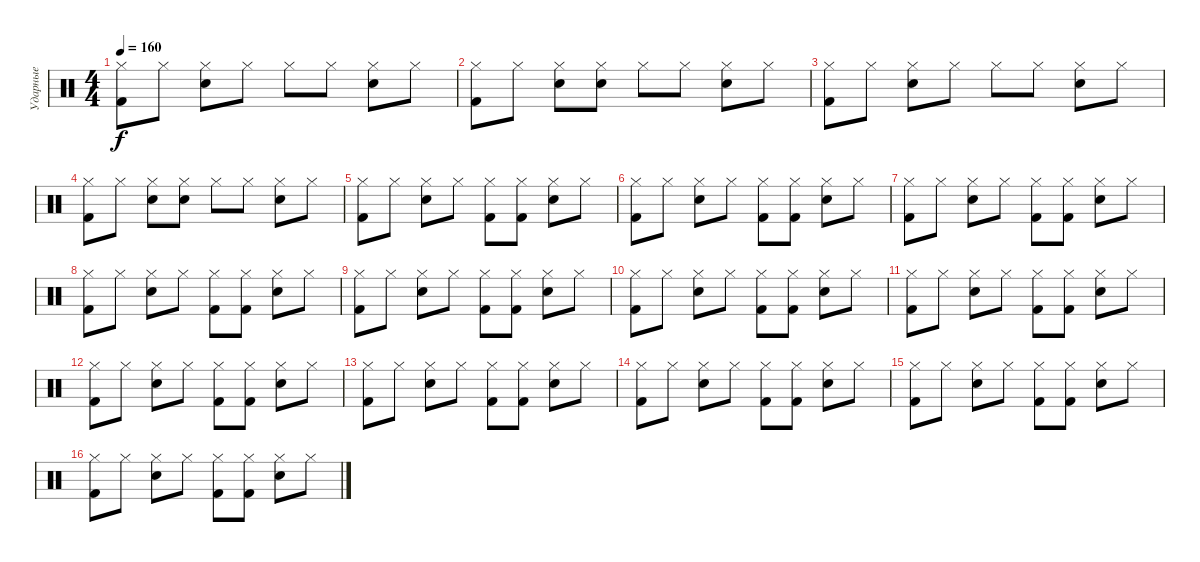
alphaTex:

\track ("Ударные" "Ударные") {instrument percussion}
\staff {score}
\articulation defaults
\ts (4 4)
\tempo 160
\clef neutral
\ks c
("Kick (hit) 2" "Hi-Hat (closed)").8{dy f} "Hi-Hat (closed)".8 ("Electric Snare (hit)" "Hi-Hat (closed)").8 "Hi-Hat (closed)".8 "Hi-Hat (closed)".8 "Hi-Hat (closed)".8 ("Electric Snare (hit)" "Hi-Hat (closed)").8 "Hi-Hat (closed)".8 |
("Kick (hit) 2" "Hi-Hat (closed)").8 "Hi-Hat (closed)".8 ("Electric Snare (hit)" "Hi-Hat (closed)").8 ("Electric Snare (hit)" "Hi-Hat (closed)").8 "Hi-Hat (closed)".8 "Hi-Hat (closed)".8 ("Electric Snare (hit)" "Hi-Hat (closed)").8 "Hi-Hat (closed)".8 |
("Kick (hit) 2" "Hi-Hat (closed)").8 "Hi-Hat (closed)".8 ("Electric Snare (hit)" "Hi-Hat (closed)").8 "Hi-Hat (closed)".8 "Hi-Hat (closed)".8 "Hi-Hat (closed)".8 ("Electric Snare (hit)" "Hi-Hat (closed)").8 "Hi-Hat (closed)".8 |
("Kick (hit) 2" "Hi-Hat (closed)").8 "Hi-Hat (closed)".8 ("Electric Snare (hit)" "Hi-Hat (closed)").8 ("Electric Snare (hit)" "Hi-Hat (closed)").8 "Hi-Hat (closed)".8 "Hi-Hat (closed)".8 ("Electric Snare (hit)" "Hi-Hat (closed)").8 "Hi-Hat (closed)".8 |
("Kick (hit) 2" "Hi-Hat (closed)").8 "Hi-Hat (closed)".8 ("Electric Snare (hit)" "Hi-Hat (closed)").8 "Hi-Hat (closed)".8 ("Kick (hit) 2" "Hi-Hat (closed)").8 ("Kick (hit) 2" "Hi-Hat (closed)").8 ("Electric Snare (hit)" "Hi-Hat (closed)").8 "Hi-Hat (closed)".8 |
("Kick (hit) 2" "Hi-Hat (closed)").8 "Hi-Hat (closed)".8 ("Electric Snare (hit)" "Hi-Hat (closed)").8 "Hi-Hat (closed)".8 ("Kick (hit) 2" "Hi-Hat (closed)").8 ("Kick (hit) 2" "Hi-Hat (closed)").8 ("Electric Snare (hit)" "Hi-Hat (closed)").8 "Hi-Hat (closed)".8 |
("Kick (hit) 2" "Hi-Hat (closed)").8 "Hi-Hat (closed)".8 ("Electric Snare (hit)" "Hi-Hat (closed)").8 "Hi-Hat (closed)".8 ("Kick (hit) 2" "Hi-Hat (closed)").8 ("Kick (hit) 2" "Hi-Hat (closed)").8 ("Electric Snare (hit)" "Hi-Hat (closed)").8 "Hi-Hat (closed)".8 |
("Kick (hit) 2" "Hi-Hat (closed)").8 "Hi-Hat (closed)".8 ("Electric Snare (hit)" "Hi-Hat (closed)").8 "Hi-Hat (closed)".8 ("Kick (hit) 2" "Hi-Hat (closed)").8 ("Kick (hit) 2" "Hi-Hat (closed)").8 ("Electric Snare (hit)" "Hi-Hat (closed)").8 "Hi-Hat (closed)".8 |
("Kick (hit) 2" "Hi-Hat (closed)").8 "Hi-Hat (closed)".8 ("Electric Snare (hit)" "Hi-Hat (closed)").8 "Hi-Hat (closed)".8 ("Kick (hit) 2" "Hi-Hat (closed)").8 ("Kick (hit) 2" "Hi-Hat (closed)").8 ("Electric Snare (hit)" "Hi-Hat (closed)").8 "Hi-Hat (closed)".8 |
("Kick (hit) 2" "Hi-Hat (closed)").8 "Hi-Hat (closed)".8 ("Electric Snare (hit)" "Hi-Hat (closed)").8 "Hi-Hat (closed)".8 ("Kick (hit) 2" "Hi-Hat (closed)").8 ("Kick (hit) 2" "Hi-Hat (closed)").8 ("Electric Snare (hit)" "Hi-Hat (closed)").8 "Hi-Hat (closed)".8 |
("Kick (hit) 2" "Hi-Hat (closed)").8 "Hi-Hat (closed)".8 ("Electric Snare (hit)" "Hi-Hat (closed)").8 "Hi-Hat (closed)".8 ("Kick (hit) 2" "Hi-Hat (closed)").8 ("Kick (hit) 2" "Hi-Hat (closed)").8 ("Electric Snare (hit)" "Hi-Hat (closed)").8 "Hi-Hat (closed)".8 |
("Kick (hit) 2" "Hi-Hat (closed)").8 "Hi-Hat (closed)".8 ("Electric Snare (hit)" "Hi-Hat (closed)").8 "Hi-Hat (closed)".8 ("Kick (hit) 2" "Hi-Hat (closed)").8 ("Kick (hit) 2" "Hi-Hat (closed)").8 ("Electric Snare (hit)" "Hi-Hat (closed)").8 "Hi-Hat (closed)".8 |
("Kick (hit) 2" "Hi-Hat (closed)").8 "Hi-Hat (closed)".8 ("Electric Snare (hit)" "Hi-Hat (closed)").8 "Hi-Hat (closed)".8 ("Kick (hit) 2" "Hi-Hat (closed)").8 ("Kick (hit) 2" "Hi-Hat (closed)").8 ("Electric Snare (hit)" "Hi-Hat (closed)").8 "Hi-Hat (closed)".8 |
("Kick (hit) 2" "Hi-Hat (closed)").8 "Hi-Hat (closed)".8 ("Electric Snare (hit)" "Hi-Hat (closed)").8 "Hi-Hat (closed)".8 ("Kick (hit) 2" "Hi-Hat (closed)").8 ("Kick (hit) 2" "Hi-Hat (closed)").8 ("Electric Snare (hit)" "Hi-Hat (closed)").8 "Hi-Hat (closed)".8 |
("Kick (hit) 2" "Hi-Hat (closed)").8 "Hi-Hat (closed)".8 ("Electric Snare (hit)" "Hi-Hat (closed)").8 "Hi-Hat (closed)".8 ("Kick (hit) 2" "Hi-Hat (closed)").8 ("Kick (hit) 2" "Hi-Hat (closed)").8 ("Electric Snare (hit)" "Hi-Hat (closed)").8 "Hi-Hat (closed)".8 |
("Kick (hit) 2" "Hi-Hat (closed)").8 "Hi-Hat (closed)".8 ("Electric Snare (hit)" "Hi-Hat (closed)").8 "Hi-Hat (closed)".8 ("Kick (hit) 2" "Hi-Hat (closed)").8 ("Kick (hit) 2" "Hi-Hat (closed)").8 ("Electric Snare (hit)" "Hi-Hat (closed)").8 "Hi-Hat (closed)".8
